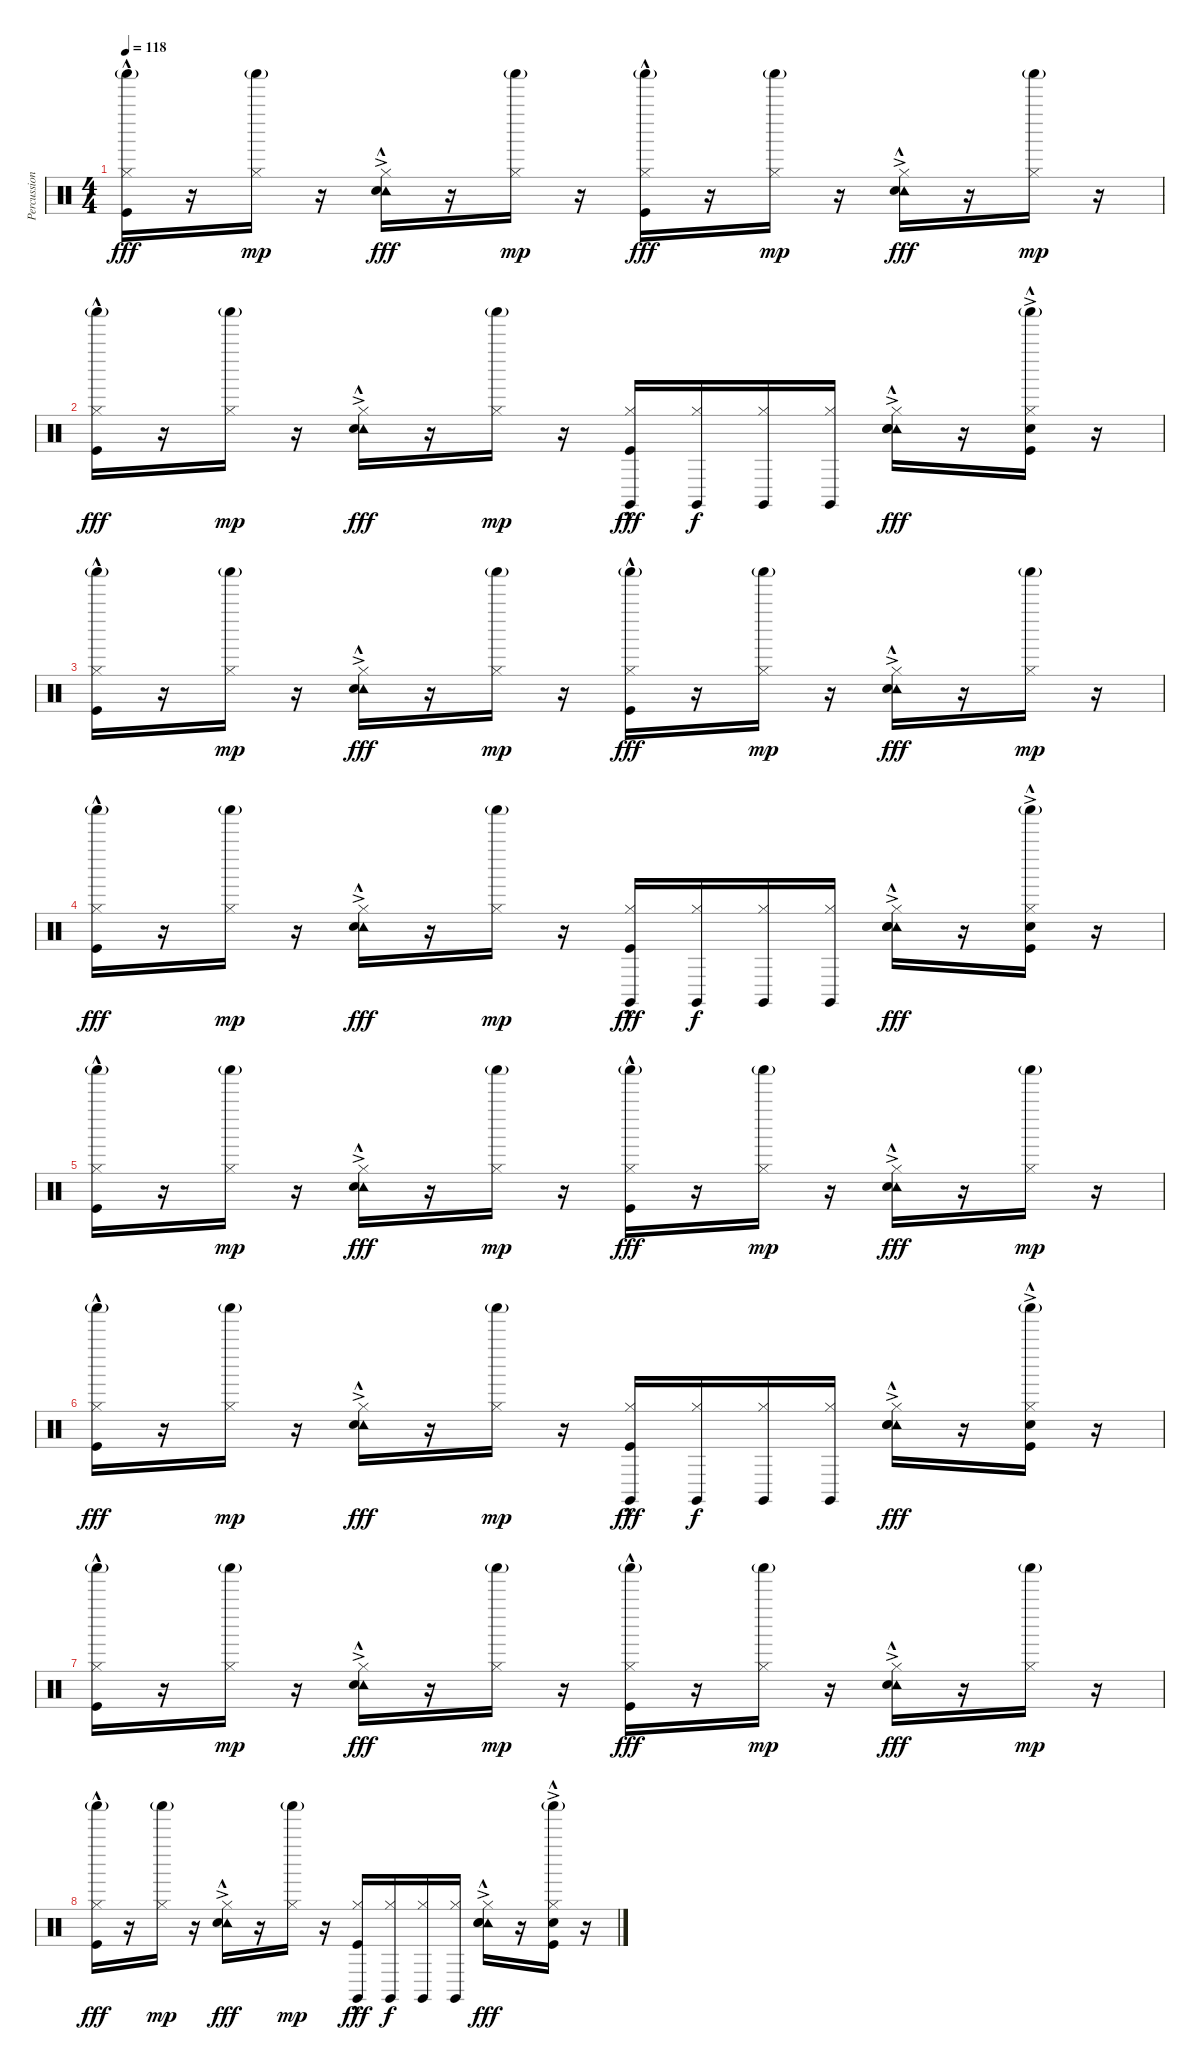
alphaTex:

\track ("Percussion" "Percussion") {instrument percussion}
\staff {score}
\articulation defaults
\ts (4 4)
\tempo 118
\clef neutral
\ks c
("Shaker (hit)"{g} "Hi-Hat (closed)" "Kick (hit)"{hac}).16{dy fff} r.16 ("Shaker (hit)"{g} "Hi-Hat (closed)").16{dy mp} r.16 ("Tambourine (hit)"{ac} "Hi-Hat (closed)" "Snare (hit) 2"{hac}).16{dy fff} r.16 ("Shaker (hit)"{g} "Hi-Hat (closed)").16{dy mp} r.16 ("Shaker (hit)"{g} "Hi-Hat (closed)" "Kick (hit)"{hac}).16{dy fff} r.16 ("Shaker (hit)"{g} "Hi-Hat (closed)").16{dy mp} r.16 ("Tambourine (hit)"{ac} "Hi-Hat (closed)" "Snare (hit) 2"{hac}).16{dy fff} r.16 ("Shaker (hit)"{g} "Hi-Hat (closed)").16{dy mp} r.16 |
("Shaker (hit)"{g} "Hi-Hat (closed)" "Kick (hit)"{hac}).16{dy fff} r.16 ("Shaker (hit)"{g} "Hi-Hat (closed)").16{dy mp} r.16 ("Tambourine (hit)"{ac} "Hi-Hat (closed)" "Snare (hit) 2"{hac}).16{dy fff} r.16 ("Shaker (hit)"{g} "Hi-Hat (closed)").16{dy mp} r.16 ("Claves (hit)" "Hi-Hat (closed)" "Kick (hit)"{hac}).16{dy fff} ("Claves (hit)" "Hi-Hat (closed)").16{dy f} ("Claves (hit)" "Hi-Hat (closed)").16 ("Claves (hit)" "Hi-Hat (closed)").16 ("Tambourine (hit)"{ac} "Hi-Hat (closed)" "Hand Clap (hit)"{ac} "Snare (hit) 2"{hac}).16{dy fff} r.16 ("Shaker (hit)"{g} "Hi-Hat (closed)" "Hand Clap (hit)"{ac} "Kick (hit)"{hac}).16 r.16 |
("Shaker (hit)"{g} "Hi-Hat (closed)" "Kick (hit)"{hac}).16 r.16 ("Shaker (hit)"{g} "Hi-Hat (closed)").16{dy mp} r.16 ("Tambourine (hit)"{ac} "Hi-Hat (closed)" "Snare (hit) 2"{hac}).16{dy fff} r.16 ("Shaker (hit)"{g} "Hi-Hat (closed)").16{dy mp} r.16 ("Shaker (hit)"{g} "Hi-Hat (closed)" "Kick (hit)"{hac}).16{dy fff} r.16 ("Shaker (hit)"{g} "Hi-Hat (closed)").16{dy mp} r.16 ("Tambourine (hit)"{ac} "Hi-Hat (closed)" "Snare (hit) 2"{hac}).16{dy fff} r.16 ("Shaker (hit)"{g} "Hi-Hat (closed)").16{dy mp} r.16 |
("Shaker (hit)"{g} "Hi-Hat (closed)" "Kick (hit)"{hac}).16{dy fff} r.16 ("Shaker (hit)"{g} "Hi-Hat (closed)").16{dy mp} r.16 ("Tambourine (hit)"{ac} "Hi-Hat (closed)" "Snare (hit) 2"{hac}).16{dy fff} r.16 ("Shaker (hit)"{g} "Hi-Hat (closed)").16{dy mp} r.16 ("Claves (hit)" "Hi-Hat (closed)" "Kick (hit)"{hac}).16{dy fff} ("Claves (hit)" "Hi-Hat (closed)").16{dy f} ("Claves (hit)" "Hi-Hat (closed)").16 ("Claves (hit)" "Hi-Hat (closed)").16 ("Tambourine (hit)"{ac} "Hi-Hat (closed)" "Hand Clap (hit)"{ac} "Snare (hit) 2"{hac}).16{dy fff} r.16 ("Shaker (hit)"{g} "Hi-Hat (closed)" "Hand Clap (hit)"{ac} "Kick (hit)"{hac}).16 r.16 |
("Shaker (hit)"{g} "Hi-Hat (closed)" "Kick (hit)"{hac}).16 r.16 ("Shaker (hit)"{g} "Hi-Hat (closed)").16{dy mp} r.16 ("Tambourine (hit)"{ac} "Hi-Hat (closed)" "Snare (hit) 2"{hac}).16{dy fff} r.16 ("Shaker (hit)"{g} "Hi-Hat (closed)").16{dy mp} r.16 ("Shaker (hit)"{g} "Hi-Hat (closed)" "Kick (hit)"{hac}).16{dy fff} r.16 ("Shaker (hit)"{g} "Hi-Hat (closed)").16{dy mp} r.16 ("Tambourine (hit)"{ac} "Hi-Hat (closed)" "Snare (hit) 2"{hac}).16{dy fff} r.16 ("Shaker (hit)"{g} "Hi-Hat (closed)").16{dy mp} r.16 |
("Shaker (hit)"{g} "Hi-Hat (closed)" "Kick (hit)"{hac}).16{dy fff} r.16 ("Shaker (hit)"{g} "Hi-Hat (closed)").16{dy mp} r.16 ("Tambourine (hit)"{ac} "Hi-Hat (closed)" "Snare (hit) 2"{hac}).16{dy fff} r.16 ("Shaker (hit)"{g} "Hi-Hat (closed)").16{dy mp} r.16 ("Claves (hit)" "Hi-Hat (closed)" "Kick (hit)"{hac}).16{dy fff} ("Claves (hit)" "Hi-Hat (closed)").16{dy f} ("Claves (hit)" "Hi-Hat (closed)").16 ("Claves (hit)" "Hi-Hat (closed)").16 ("Tambourine (hit)"{ac} "Hi-Hat (closed)" "Hand Clap (hit)"{ac} "Snare (hit) 2"{hac}).16{dy fff} r.16 ("Shaker (hit)"{g} "Hi-Hat (closed)" "Hand Clap (hit)"{ac} "Kick (hit)"{hac}).16 r.16 |
("Shaker (hit)"{g} "Hi-Hat (closed)" "Kick (hit)"{hac}).16 r.16 ("Shaker (hit)"{g} "Hi-Hat (closed)").16{dy mp} r.16 ("Tambourine (hit)"{ac} "Hi-Hat (closed)" "Snare (hit) 2"{hac}).16{dy fff} r.16 ("Shaker (hit)"{g} "Hi-Hat (closed)").16{dy mp} r.16 ("Shaker (hit)"{g} "Hi-Hat (closed)" "Kick (hit)"{hac}).16{dy fff} r.16 ("Shaker (hit)"{g} "Hi-Hat (closed)").16{dy mp} r.16 ("Tambourine (hit)"{ac} "Hi-Hat (closed)" "Snare (hit) 2"{hac}).16{dy fff} r.16 ("Shaker (hit)"{g} "Hi-Hat (closed)").16{dy mp} r.16 |
("Shaker (hit)"{g} "Hi-Hat (closed)" "Kick (hit)"{hac}).16{dy fff} r.16 ("Shaker (hit)"{g} "Hi-Hat (closed)").16{dy mp} r.16 ("Tambourine (hit)"{ac} "Hi-Hat (closed)" "Snare (hit) 2"{hac}).16{dy fff} r.16 ("Shaker (hit)"{g} "Hi-Hat (closed)").16{dy mp} r.16 ("Claves (hit)" "Hi-Hat (closed)" "Kick (hit)"{hac}).16{dy fff} ("Claves (hit)" "Hi-Hat (closed)").16{dy f} ("Claves (hit)" "Hi-Hat (closed)").16 ("Claves (hit)" "Hi-Hat (closed)").16 ("Tambourine (hit)"{ac} "Hi-Hat (closed)" "Hand Clap (hit)"{ac} "Snare (hit) 2"{hac}).16{dy fff} r.16 ("Shaker (hit)"{g} "Hi-Hat (closed)" "Hand Clap (hit)"{ac} "Kick (hit)"{hac}).16 r.16
